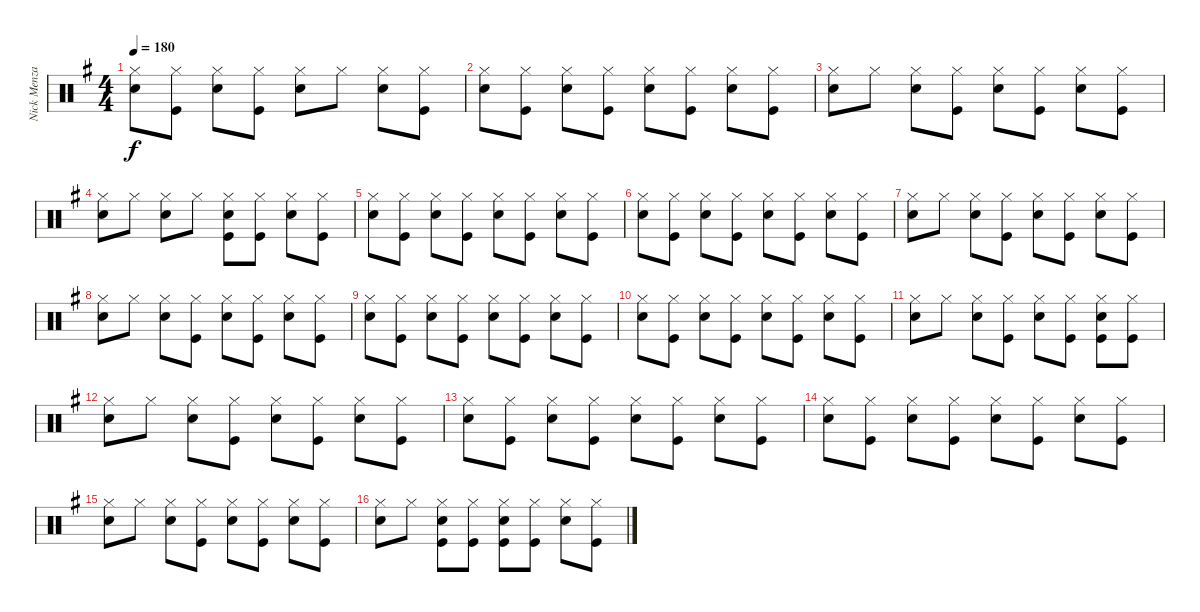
\track ("Nick Menza" "Nick Menza") {instrument percussion}
\staff {score}
\articulation defaults
\ts (4 4)
\tempo 180
\clef neutral
\ks g
("Hi-Hat (closed)" "Snare (hit) 2").8{dy f} ("Kick (hit)" "Hi-Hat (closed)").8 ("Hi-Hat (closed)" "Snare (hit) 2").8 ("Kick (hit)" "Hi-Hat (closed)").8 ("Hi-Hat (closed)" "Snare (hit) 2").8 "Hi-Hat (closed)".8 ("Hi-Hat (closed)" "Snare (hit) 2").8 ("Kick (hit)" "Hi-Hat (closed)").8 |
("Hi-Hat (closed)" "Snare (hit) 2").8 ("Kick (hit)" "Hi-Hat (closed)").8 ("Hi-Hat (closed)" "Snare (hit) 2").8 ("Kick (hit)" "Hi-Hat (closed)").8 ("Hi-Hat (closed)" "Snare (hit) 2").8 ("Kick (hit)" "Hi-Hat (closed)").8 ("Hi-Hat (closed)" "Snare (hit) 2").8 ("Kick (hit)" "Hi-Hat (closed)").8 |
("Hi-Hat (closed)" "Snare (hit) 2").8 "Hi-Hat (closed)".8 ("Hi-Hat (closed)" "Snare (hit) 2").8 ("Kick (hit)" "Hi-Hat (closed)").8 ("Hi-Hat (closed)" "Snare (hit) 2").8 ("Kick (hit)" "Hi-Hat (closed)").8 ("Hi-Hat (closed)" "Snare (hit) 2").8 ("Kick (hit)" "Hi-Hat (closed)").8 |
("Hi-Hat (closed)" "Snare (hit) 2").8 "Hi-Hat (closed)".8 ("Hi-Hat (closed)" "Snare (hit) 2").8 "Hi-Hat (closed)".8 ("Kick (hit)" "Hi-Hat (closed)" "Snare (hit) 2").8 ("Kick (hit)" "Hi-Hat (closed)").8 ("Hi-Hat (closed)" "Snare (hit) 2").8 ("Kick (hit)" "Hi-Hat (closed)").8 |
("Hi-Hat (closed)" "Snare (hit) 2").8 ("Kick (hit)" "Hi-Hat (closed)").8 ("Hi-Hat (closed)" "Snare (hit) 2").8 ("Kick (hit)" "Hi-Hat (closed)").8 ("Hi-Hat (closed)" "Snare (hit) 2").8 ("Kick (hit)" "Hi-Hat (closed)").8 ("Hi-Hat (closed)" "Snare (hit) 2").8 ("Kick (hit)" "Hi-Hat (closed)").8 |
("Hi-Hat (closed)" "Snare (hit) 2").8 ("Kick (hit)" "Hi-Hat (closed)").8 ("Hi-Hat (closed)" "Snare (hit) 2").8 ("Kick (hit)" "Hi-Hat (closed)").8 ("Hi-Hat (closed)" "Snare (hit) 2").8 ("Kick (hit)" "Hi-Hat (closed)").8 ("Hi-Hat (closed)" "Snare (hit) 2").8 ("Kick (hit)" "Hi-Hat (closed)").8 |
("Hi-Hat (closed)" "Snare (hit) 2").8 "Hi-Hat (closed)".8 ("Hi-Hat (closed)" "Snare (hit) 2").8 ("Kick (hit)" "Hi-Hat (closed)").8 ("Hi-Hat (closed)" "Snare (hit) 2").8 ("Kick (hit)" "Hi-Hat (closed)").8 ("Hi-Hat (closed)" "Snare (hit) 2").8 ("Kick (hit)" "Hi-Hat (closed)").8 |
("Hi-Hat (closed)" "Snare (hit) 2").8 "Hi-Hat (closed)".8 ("Hi-Hat (closed)" "Snare (hit) 2").8 ("Kick (hit)" "Hi-Hat (closed)").8 ("Hi-Hat (closed)" "Snare (hit) 2").8 ("Kick (hit)" "Hi-Hat (closed)").8 ("Hi-Hat (closed)" "Snare (hit) 2").8 ("Kick (hit)" "Hi-Hat (closed)").8 |
("Hi-Hat (closed)" "Snare (hit) 2").8 ("Kick (hit)" "Hi-Hat (closed)").8 ("Hi-Hat (closed)" "Snare (hit) 2").8 ("Kick (hit)" "Hi-Hat (closed)").8 ("Hi-Hat (closed)" "Snare (hit) 2").8 ("Kick (hit)" "Hi-Hat (closed)").8 ("Hi-Hat (closed)" "Snare (hit) 2").8 ("Kick (hit)" "Hi-Hat (closed)").8 |
("Hi-Hat (closed)" "Snare (hit) 2").8 ("Kick (hit)" "Hi-Hat (closed)").8 ("Hi-Hat (closed)" "Snare (hit) 2").8 ("Kick (hit)" "Hi-Hat (closed)").8 ("Hi-Hat (closed)" "Snare (hit) 2").8 ("Kick (hit)" "Hi-Hat (closed)").8 ("Hi-Hat (closed)" "Snare (hit) 2").8 ("Kick (hit)" "Hi-Hat (closed)").8 |
("Hi-Hat (closed)" "Snare (hit) 2").8 "Hi-Hat (closed)".8 ("Hi-Hat (closed)" "Snare (hit) 2").8 ("Kick (hit)" "Hi-Hat (closed)").8 ("Hi-Hat (closed)" "Snare (hit) 2").8 ("Kick (hit)" "Hi-Hat (closed)").8 ("Kick (hit)" "Hi-Hat (closed)" "Snare (hit) 2").8 ("Kick (hit)" "Hi-Hat (closed)").8 |
("Hi-Hat (closed)" "Snare (hit) 2").8 "Hi-Hat (closed)".8 ("Hi-Hat (closed)" "Snare (hit) 2").8 ("Kick (hit)" "Hi-Hat (closed)").8 ("Hi-Hat (closed)" "Snare (hit) 2").8 ("Kick (hit)" "Hi-Hat (closed)").8 ("Hi-Hat (closed)" "Snare (hit) 2").8 ("Kick (hit)" "Hi-Hat (closed)").8 |
("Hi-Hat (closed)" "Snare (hit) 2").8 ("Kick (hit)" "Hi-Hat (closed)").8 ("Hi-Hat (closed)" "Snare (hit) 2").8 ("Kick (hit)" "Hi-Hat (closed)").8 ("Hi-Hat (closed)" "Snare (hit) 2").8 ("Kick (hit)" "Hi-Hat (closed)").8 ("Hi-Hat (closed)" "Snare (hit) 2").8 ("Kick (hit)" "Hi-Hat (closed)").8 |
("Hi-Hat (closed)" "Snare (hit) 2").8 ("Kick (hit)" "Hi-Hat (closed)").8 ("Hi-Hat (closed)" "Snare (hit) 2").8 ("Kick (hit)" "Hi-Hat (closed)").8 ("Hi-Hat (closed)" "Snare (hit) 2").8 ("Kick (hit)" "Hi-Hat (closed)").8 ("Hi-Hat (closed)" "Snare (hit) 2").8 ("Kick (hit)" "Hi-Hat (closed)").8 |
("Hi-Hat (closed)" "Snare (hit) 2").8 "Hi-Hat (closed)".8 ("Hi-Hat (closed)" "Snare (hit) 2").8 ("Kick (hit)" "Hi-Hat (closed)").8 ("Hi-Hat (closed)" "Snare (hit) 2").8 ("Kick (hit)" "Hi-Hat (closed)").8 ("Hi-Hat (closed)" "Snare (hit) 2").8 ("Kick (hit)" "Hi-Hat (closed)").8 |
("Hi-Hat (closed)" "Snare (hit) 2").8 "Hi-Hat (closed)".8 ("Kick (hit)" "Hi-Hat (closed)" "Snare (hit) 2").8 ("Kick (hit)" "Hi-Hat (closed)").8 ("Kick (hit)" "Hi-Hat (closed)" "Snare (hit) 2").8 ("Kick (hit)" "Hi-Hat (closed)").8 ("Hi-Hat (closed)" "Snare (hit) 2").8 ("Kick (hit)" "Hi-Hat (closed)").8
